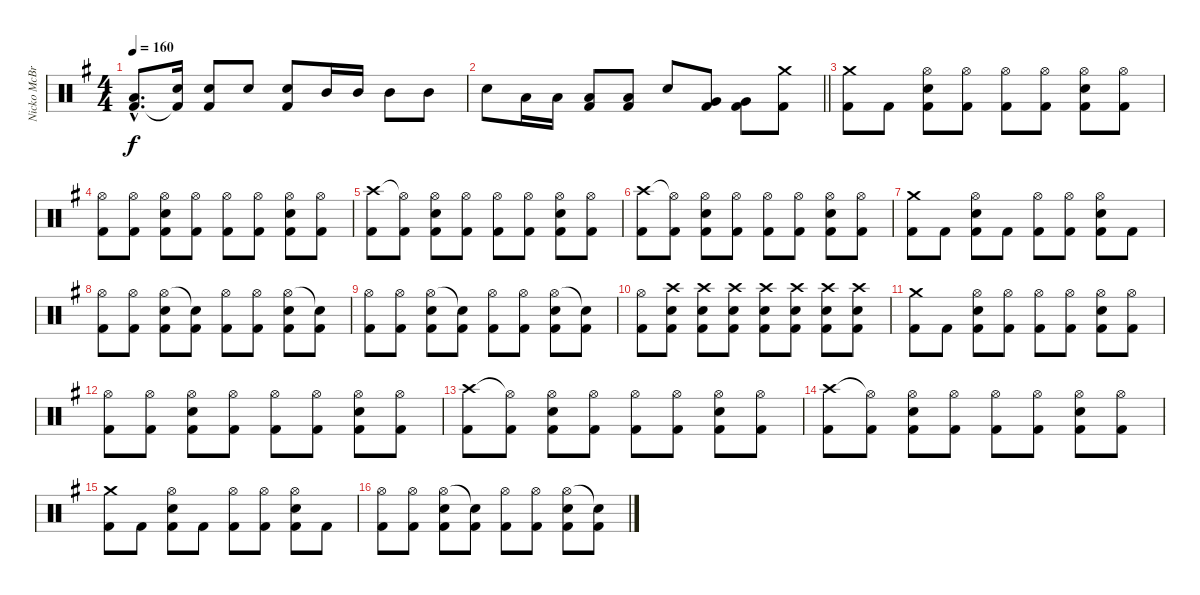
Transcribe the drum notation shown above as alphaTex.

\track ("Nicko McBrain" "Nicko McBr") {instrument percussion}
\staff {score}
\articulation defaults
\ts (4 4)
\tempo 160
\clef neutral
\ks g
("Low Tom (hit)"{hac} "Kick (hit) 2"{hac}).8{d dy f} ("Electric Snare (hit)" "Kick (hit) 2"{t}).16 ("Electric Snare (hit)" "Kick (hit) 2").8 "Electric Snare (hit)".8 ("Electric Snare (hit)" "Kick (hit) 2").8 "Mid Tom (hit)".16 "Mid Tom (hit)".16 "Mid Tom (hit)".8 "Mid Tom (hit)".8 |
\barLineRight lightlight "Electric Snare (hit)".8 "Low Tom (hit)".16 "Low Tom (hit)".16
("Low Tom (hit)" "Kick (hit) 2").8 ("Low Tom (hit)" "Kick (hit) 2").8 "Electric Snare (hit)".8 ("Very Low Tom (hit)" "Kick (hit) 2").8 ("Very Low Tom (hit)" "Kick (hit) 2").8 ("Crash medium (hit)" "Kick (hit) 2").8 |
("Crash medium (hit)" "Kick (hit) 2").8 "Kick (hit) 2".8 ("Hi-Hat (open)" "Electric Snare (hit)" "Kick (hit) 2").8 ("Hi-Hat (open)" "Kick (hit) 2").8 ("Hi-Hat (open)" "Kick (hit) 2").8 ("Hi-Hat (open)" "Kick (hit) 2").8 ("Hi-Hat (open)" "Electric Snare (hit)" "Kick (hit) 2").8 ("Hi-Hat (open)" "Kick (hit) 2").8 |
("Hi-Hat (open)" "Kick (hit) 2").8 ("Hi-Hat (open)" "Kick (hit) 2").8 ("Hi-Hat (open)" "Electric Snare (hit)" "Kick (hit) 2").8 ("Hi-Hat (open)" "Kick (hit) 2").8 ("Hi-Hat (open)" "Kick (hit) 2").8 ("Hi-Hat (open)" "Kick (hit) 2").8 ("Hi-Hat (open)" "Electric Snare (hit)" "Kick (hit) 2").8 ("Hi-Hat (open)" "Kick (hit) 2").8 |
("Crash high (hit)" "Kick (hit) 2").8 ("Hi-Hat (open)"{t} "Kick (hit) 2").8 ("Hi-Hat (open)" "Electric Snare (hit)" "Kick (hit) 2").8 ("Hi-Hat (open)" "Kick (hit) 2").8 ("Hi-Hat (open)" "Kick (hit) 2").8 ("Hi-Hat (open)" "Kick (hit) 2").8 ("Hi-Hat (open)" "Electric Snare (hit)" "Kick (hit) 2").8 ("Hi-Hat (open)" "Kick (hit) 2").8 |
("Crash high (hit)" "Kick (hit) 2").8 ("Hi-Hat (open)"{t} "Kick (hit) 2").8 ("Hi-Hat (open)" "Electric Snare (hit)" "Kick (hit) 2").8 ("Hi-Hat (open)" "Kick (hit) 2").8 ("Hi-Hat (open)" "Kick (hit) 2").8 ("Hi-Hat (open)" "Kick (hit) 2").8 ("Hi-Hat (open)" "Electric Snare (hit)" "Kick (hit) 2").8 ("Hi-Hat (open)" "Kick (hit) 2").8 |
("Crash medium (hit)" "Kick (hit) 2").8 "Kick (hit) 2".8 ("Hi-Hat (open)" "Electric Snare (hit)" "Kick (hit) 2").8 "Kick (hit) 2".8 ("Hi-Hat (open)" "Kick (hit) 2").8 ("Hi-Hat (open)" "Kick (hit) 2").8 ("Hi-Hat (open)" "Electric Snare (hit)" "Kick (hit) 2").8 "Kick (hit) 2".8 |
("Hi-Hat (open)" "Kick (hit) 2").8 ("Hi-Hat (open)" "Kick (hit) 2").8 ("Hi-Hat (open)" "Electric Snare (hit)" "Kick (hit) 2").8 ("Snare (hit)"{t} "Kick (hit) 2").8 ("Hi-Hat (open)" "Kick (hit) 2").8 ("Hi-Hat (open)" "Kick (hit) 2").8 ("Hi-Hat (open)" "Electric Snare (hit)" "Kick (hit) 2").8 ("Snare (hit)"{t} "Kick (hit) 2").8 |
("Hi-Hat (open)" "Kick (hit) 2").8 ("Hi-Hat (open)" "Kick (hit) 2").8 ("Hi-Hat (open)" "Electric Snare (hit)" "Kick (hit) 2").8 ("Snare (hit)"{t} "Kick (hit) 2").8 ("Hi-Hat (open)" "Kick (hit) 2").8 ("Hi-Hat (open)" "Kick (hit) 2").8 ("Hi-Hat (open)" "Electric Snare (hit)" "Kick (hit) 2").8 ("Snare (hit)"{t} "Kick (hit) 2").8 |
("Hi-Hat (open)" "Kick (hit) 2").8 ("Crash high (hit)" "Electric Snare (hit)" "Kick (hit) 2").8 ("Crash high (hit)" "Electric Snare (hit)" "Kick (hit) 2").8 ("Crash high (hit)" "Electric Snare (hit)" "Kick (hit) 2").8 ("Crash high (hit)" "Electric Snare (hit)" "Kick (hit) 2").8 ("Crash high (hit)" "Electric Snare (hit)" "Kick (hit) 2").8 ("Crash high (hit)" "Electric Snare (hit)" "Kick (hit) 2").8 ("Crash high (hit)" "Electric Snare (hit)" "Kick (hit) 2").8 |
("Crash medium (hit)" "Kick (hit) 2").8 "Kick (hit) 2".8 ("Hi-Hat (open)" "Electric Snare (hit)" "Kick (hit) 2").8 ("Hi-Hat (open)" "Kick (hit) 2").8 ("Hi-Hat (open)" "Kick (hit) 2").8 ("Hi-Hat (open)" "Kick (hit) 2").8 ("Hi-Hat (open)" "Electric Snare (hit)" "Kick (hit) 2").8 ("Hi-Hat (open)" "Kick (hit) 2").8 |
("Hi-Hat (open)" "Kick (hit) 2").8 ("Hi-Hat (open)" "Kick (hit) 2").8 ("Hi-Hat (open)" "Electric Snare (hit)" "Kick (hit) 2").8 ("Hi-Hat (open)" "Kick (hit) 2").8 ("Hi-Hat (open)" "Kick (hit) 2").8 ("Hi-Hat (open)" "Kick (hit) 2").8 ("Hi-Hat (open)" "Electric Snare (hit)" "Kick (hit) 2").8 ("Hi-Hat (open)" "Kick (hit) 2").8 |
("Crash high (hit)" "Kick (hit) 2").8 ("Hi-Hat (open)"{t} "Kick (hit) 2").8 ("Hi-Hat (open)" "Electric Snare (hit)" "Kick (hit) 2").8 ("Hi-Hat (open)" "Kick (hit) 2").8 ("Hi-Hat (open)" "Kick (hit) 2").8 ("Hi-Hat (open)" "Kick (hit) 2").8 ("Hi-Hat (open)" "Electric Snare (hit)" "Kick (hit) 2").8 ("Hi-Hat (open)" "Kick (hit) 2").8 |
("Crash high (hit)" "Kick (hit) 2").8 ("Hi-Hat (open)"{t} "Kick (hit) 2").8 ("Hi-Hat (open)" "Electric Snare (hit)" "Kick (hit) 2").8 ("Hi-Hat (open)" "Kick (hit) 2").8 ("Hi-Hat (open)" "Kick (hit) 2").8 ("Hi-Hat (open)" "Kick (hit) 2").8 ("Hi-Hat (open)" "Electric Snare (hit)" "Kick (hit) 2").8 ("Hi-Hat (open)" "Kick (hit) 2").8 |
("Crash medium (hit)" "Kick (hit) 2").8 "Kick (hit) 2".8 ("Hi-Hat (open)" "Electric Snare (hit)" "Kick (hit) 2").8 "Kick (hit) 2".8 ("Hi-Hat (open)" "Kick (hit) 2").8 ("Hi-Hat (open)" "Kick (hit) 2").8 ("Hi-Hat (open)" "Electric Snare (hit)" "Kick (hit) 2").8 "Kick (hit) 2".8 |
("Hi-Hat (open)" "Kick (hit) 2").8 ("Hi-Hat (open)" "Kick (hit) 2").8 ("Hi-Hat (open)" "Electric Snare (hit)" "Kick (hit) 2").8 ("Snare (hit)"{t} "Kick (hit) 2").8 ("Hi-Hat (open)" "Kick (hit) 2").8 ("Hi-Hat (open)" "Kick (hit) 2").8 ("Hi-Hat (open)" "Electric Snare (hit)" "Kick (hit) 2").8 ("Snare (hit)"{t} "Kick (hit) 2").8
